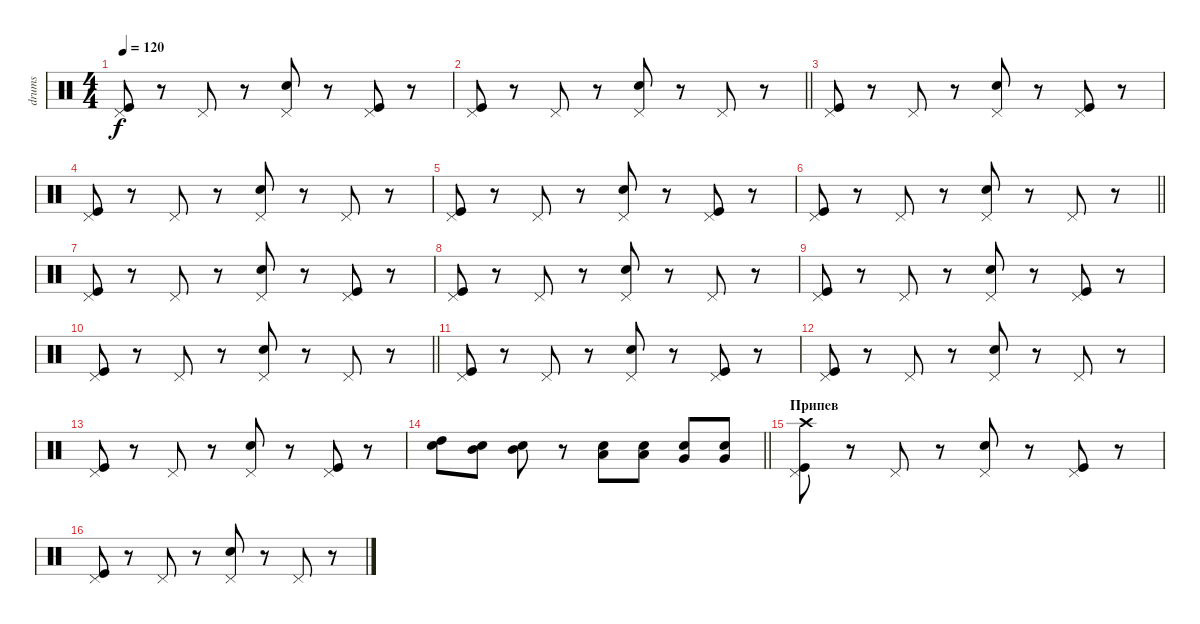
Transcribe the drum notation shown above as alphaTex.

\track ("drums" "drums") {instrument percussion}
\staff {score}
\articulation defaults
\ts (4 4)
\tempo 120
\clef neutral
\ks c
("Kick (hit)" "Pedal Hi-Hat (hit)").8{dy f} r.8 "Pedal Hi-Hat (hit)".8 r.8 ("Snare (hit) 2" "Pedal Hi-Hat (hit)").8 r.8 ("Kick (hit)" "Pedal Hi-Hat (hit)").8 r.8 |
\barLineRight lightlight
("Kick (hit)" "Pedal Hi-Hat (hit)").8 r.8 "Pedal Hi-Hat (hit)".8 r.8 ("Snare (hit) 2" "Pedal Hi-Hat (hit)").8 r.8 "Pedal Hi-Hat (hit)".8 r.8 |
("Kick (hit)" "Pedal Hi-Hat (hit)").8 r.8 "Pedal Hi-Hat (hit)".8 r.8 ("Snare (hit) 2" "Pedal Hi-Hat (hit)").8 r.8 ("Kick (hit)" "Pedal Hi-Hat (hit)").8 r.8 |
("Kick (hit)" "Pedal Hi-Hat (hit)").8 r.8 "Pedal Hi-Hat (hit)".8 r.8 ("Snare (hit) 2" "Pedal Hi-Hat (hit)").8 r.8 "Pedal Hi-Hat (hit)".8 r.8 |
("Kick (hit)" "Pedal Hi-Hat (hit)").8 r.8 "Pedal Hi-Hat (hit)".8 r.8 ("Snare (hit) 2" "Pedal Hi-Hat (hit)").8 r.8 ("Kick (hit)" "Pedal Hi-Hat (hit)").8 r.8 |
\barLineRight lightlight
("Kick (hit)" "Pedal Hi-Hat (hit)").8 r.8 "Pedal Hi-Hat (hit)".8 r.8 ("Snare (hit) 2" "Pedal Hi-Hat (hit)").8 r.8 "Pedal Hi-Hat (hit)".8 r.8 |
("Kick (hit)" "Pedal Hi-Hat (hit)").8 r.8 "Pedal Hi-Hat (hit)".8 r.8 ("Snare (hit) 2" "Pedal Hi-Hat (hit)").8 r.8 ("Kick (hit)" "Pedal Hi-Hat (hit)").8 r.8 |
("Kick (hit)" "Pedal Hi-Hat (hit)").8 r.8 "Pedal Hi-Hat (hit)".8 r.8 ("Snare (hit) 2" "Pedal Hi-Hat (hit)").8 r.8 "Pedal Hi-Hat (hit)".8 r.8 |
("Kick (hit)" "Pedal Hi-Hat (hit)").8 r.8 "Pedal Hi-Hat (hit)".8 r.8 ("Snare (hit) 2" "Pedal Hi-Hat (hit)").8 r.8 ("Kick (hit)" "Pedal Hi-Hat (hit)").8 r.8 |
\barLineRight lightlight
("Kick (hit)" "Pedal Hi-Hat (hit)").8 r.8 "Pedal Hi-Hat (hit)".8 r.8 ("Snare (hit) 2" "Pedal Hi-Hat (hit)").8 r.8 "Pedal Hi-Hat (hit)".8 r.8 |
("Kick (hit)" "Pedal Hi-Hat (hit)").8 r.8 "Pedal Hi-Hat (hit)".8 r.8 ("Snare (hit) 2" "Pedal Hi-Hat (hit)").8 r.8 ("Kick (hit)" "Pedal Hi-Hat (hit)").8 r.8 |
("Kick (hit)" "Pedal Hi-Hat (hit)").8 r.8 "Pedal Hi-Hat (hit)".8 r.8 ("Snare (hit) 2" "Pedal Hi-Hat (hit)").8 r.8 "Pedal Hi-Hat (hit)".8 r.8 |
("Kick (hit)" "Pedal Hi-Hat (hit)").8 r.8 "Pedal Hi-Hat (hit)".8 r.8 ("Snare (hit) 2" "Pedal Hi-Hat (hit)").8 r.8 ("Kick (hit)" "Pedal Hi-Hat (hit)").8 r.8 |
\barLineRight lightlight
("Snare (hit) 2" "High Tom (hit)").8 ("Snare (hit) 2" "Mid Tom (hit)").8 ("Snare (hit) 2" "Mid Tom (hit)").8 r.8 ("Snare (hit) 2" "Low Tom (hit)").8 ("Low Tom (hit)" "Snare (hit) 2").8 ("Snare (hit) 2" "Very Low Tom (hit)").8 ("Snare (hit) 2" "Very Low Tom (hit)").8 |
\section ("" "Припев")
("Kick (hit)" "Crash high (hit)" "Pedal Hi-Hat (hit)").8 r.8 "Pedal Hi-Hat (hit)".8 r.8 ("Snare (hit) 2" "Pedal Hi-Hat (hit)").8 r.8 ("Kick (hit)" "Pedal Hi-Hat (hit)").8 r.8 |
("Kick (hit)" "Pedal Hi-Hat (hit)").8 r.8 "Pedal Hi-Hat (hit)".8 r.8 ("Snare (hit) 2" "Pedal Hi-Hat (hit)").8 r.8 "Pedal Hi-Hat (hit)".8 r.8
